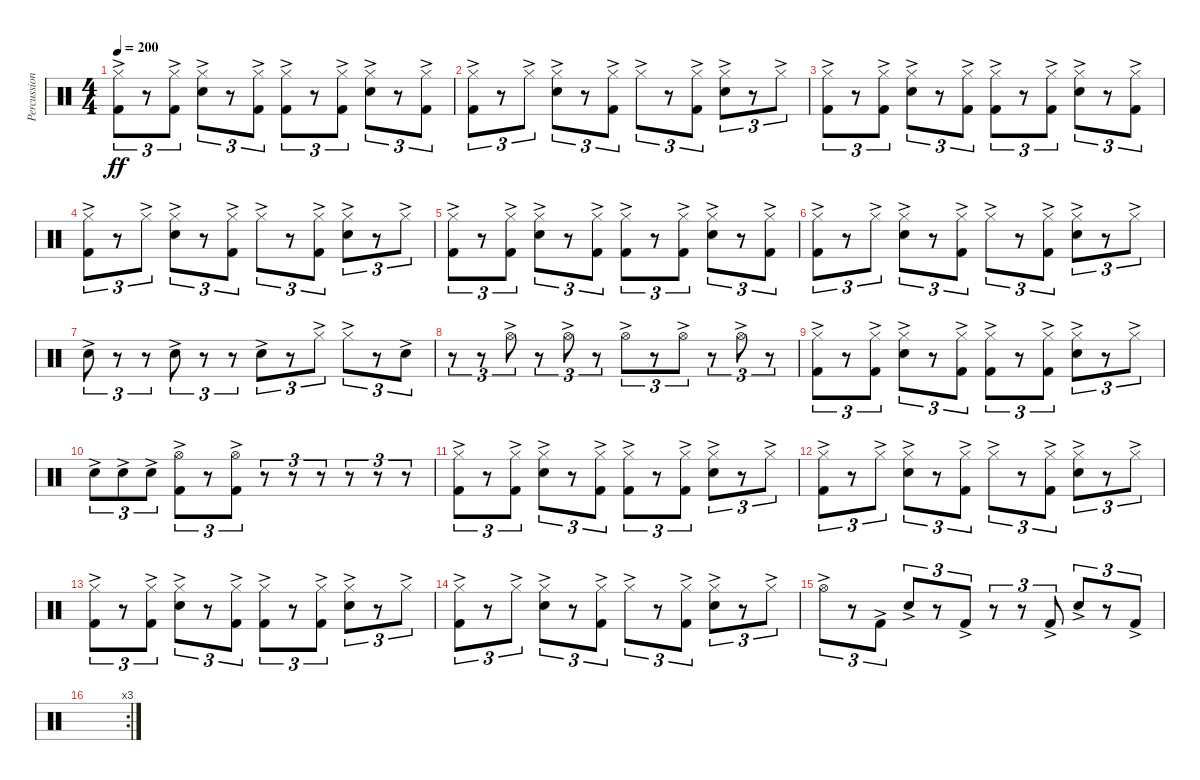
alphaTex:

\track ("Percussion" "Percussion") {instrument percussion}
\staff {score}
\articulation defaults
\ts (4 4)
\tempo 200
\clef neutral
\ks c
("Hi-Hat (closed)"{ac} "Kick (hit) 2"{ac}).8{tu (3 2) dy ff} r.8{tu (3 2)} ("Hi-Hat (closed)"{ac} "Kick (hit) 2"{ac}).8{tu (3 2)} ("Hi-Hat (closed)"{ac} "Snare (hit) 2"{ac}).8{tu (3 2)} r.8{tu (3 2)} ("Hi-Hat (closed)"{ac} "Kick (hit) 2"{ac}).8{tu (3 2)} ("Hi-Hat (closed)"{ac} "Kick (hit) 2"{ac}).8{tu (3 2)} r.8{tu (3 2)} ("Hi-Hat (closed)"{ac} "Kick (hit) 2"{ac}).8{tu (3 2)} ("Hi-Hat (closed)"{ac} "Snare (hit) 2"{ac}).8{tu (3 2)} r.8{tu (3 2)} ("Hi-Hat (closed)"{ac} "Kick (hit) 2"{ac}).8{tu (3 2)} |
("Hi-Hat (closed)"{ac} "Kick (hit) 2"{ac}).8{tu (3 2)} r.8{tu (3 2)} "Hi-Hat (closed)"{ac}.8{tu (3 2)} ("Hi-Hat (closed)"{ac} "Snare (hit) 2"{ac}).8{tu (3 2)} r.8{tu (3 2)} ("Hi-Hat (closed)"{ac} "Kick (hit) 2"{ac}).8{tu (3 2)} "Hi-Hat (closed)"{ac}.8{tu (3 2)} r.8{tu (3 2)} ("Hi-Hat (closed)"{ac} "Kick (hit) 2"{ac}).8{tu (3 2)} ("Hi-Hat (closed)"{ac} "Snare (hit) 2"{ac}).8{tu (3 2)} r.8{tu (3 2)} "Hi-Hat (closed)"{ac}.8{tu (3 2)} |
("Hi-Hat (closed)"{ac} "Kick (hit) 2"{ac}).8{tu (3 2)} r.8{tu (3 2)} ("Hi-Hat (closed)"{ac} "Kick (hit) 2"{ac}).8{tu (3 2)} ("Hi-Hat (closed)"{ac} "Snare (hit) 2"{ac}).8{tu (3 2)} r.8{tu (3 2)} ("Hi-Hat (closed)"{ac} "Kick (hit) 2"{ac}).8{tu (3 2)} ("Hi-Hat (closed)"{ac} "Kick (hit) 2"{ac}).8{tu (3 2)} r.8{tu (3 2)} ("Hi-Hat (closed)"{ac} "Kick (hit) 2"{ac}).8{tu (3 2)} ("Hi-Hat (closed)"{ac} "Snare (hit) 2"{ac}).8{tu (3 2)} r.8{tu (3 2)} ("Hi-Hat (closed)"{ac} "Kick (hit) 2"{ac}).8{tu (3 2)} |
("Hi-Hat (closed)"{ac} "Kick (hit) 2"{ac}).8{tu (3 2)} r.8{tu (3 2)} "Hi-Hat (closed)"{ac}.8{tu (3 2)} ("Hi-Hat (closed)"{ac} "Snare (hit) 2"{ac}).8{tu (3 2)} r.8{tu (3 2)} ("Hi-Hat (closed)"{ac} "Kick (hit) 2"{ac}).8{tu (3 2)} "Hi-Hat (closed)"{ac}.8{tu (3 2)} r.8{tu (3 2)} ("Hi-Hat (closed)"{ac} "Kick (hit) 2"{ac}).8{tu (3 2)} ("Hi-Hat (closed)"{ac} "Snare (hit) 2"{ac}).8{tu (3 2)} r.8{tu (3 2)} "Hi-Hat (closed)"{ac}.8{tu (3 2)} |
("Hi-Hat (closed)"{ac} "Kick (hit) 2"{ac}).8{tu (3 2)} r.8{tu (3 2)} ("Hi-Hat (closed)"{ac} "Kick (hit) 2"{ac}).8{tu (3 2)} ("Hi-Hat (closed)"{ac} "Snare (hit) 2"{ac}).8{tu (3 2)} r.8{tu (3 2)} ("Hi-Hat (closed)"{ac} "Kick (hit) 2"{ac}).8{tu (3 2)} ("Hi-Hat (closed)"{ac} "Kick (hit) 2"{ac}).8{tu (3 2)} r.8{tu (3 2)} ("Hi-Hat (closed)"{ac} "Kick (hit) 2"{ac}).8{tu (3 2)} ("Hi-Hat (closed)"{ac} "Snare (hit) 2"{ac}).8{tu (3 2)} r.8{tu (3 2)} ("Hi-Hat (closed)"{ac} "Kick (hit) 2"{ac}).8{tu (3 2)} |
("Hi-Hat (closed)"{ac} "Kick (hit) 2"{ac}).8{tu (3 2)} r.8{tu (3 2)} "Hi-Hat (closed)"{ac}.8{tu (3 2)} ("Hi-Hat (closed)"{ac} "Snare (hit) 2"{ac}).8{tu (3 2)} r.8{tu (3 2)} ("Hi-Hat (closed)"{ac} "Kick (hit) 2"{ac}).8{tu (3 2)} "Hi-Hat (closed)"{ac}.8{tu (3 2)} r.8{tu (3 2)} ("Hi-Hat (closed)"{ac} "Kick (hit) 2"{ac}).8{tu (3 2)} ("Hi-Hat (closed)"{ac} "Snare (hit) 2"{ac}).8{tu (3 2)} r.8{tu (3 2)} "Hi-Hat (closed)"{ac}.8{tu (3 2)} |
"Snare (hit) 2"{ac}.8{tu (3 2)} r.8{tu (3 2)} r.8{tu (3 2)} "Snare (hit) 2"{ac}.8{tu (3 2)} r.8{tu (3 2)} r.8{tu (3 2)} "Snare (hit) 2"{ac}.8{tu (3 2)} r.8{tu (3 2)} "Hi-Hat (closed)"{ac}.8{tu (3 2)} "Hi-Hat (closed)"{ac}.8{tu (3 2)} r.8{tu (3 2)} "Snare (hit) 2"{ac}.8{tu (3 2)} |
r.8{tu (3 2)} r.8{tu (3 2)} "Hi-Hat (open)"{ac}.8{tu (3 2)} r.8{tu (3 2)} "Hi-Hat (open)"{ac}.8{tu (3 2)} r.8{tu (3 2)} "Hi-Hat (open)"{ac}.8{tu (3 2)} r.8{tu (3 2)} "Hi-Hat (open)"{ac}.8{tu (3 2)} r.8{tu (3 2)} "Hi-Hat (open)"{ac}.8{tu (3 2)} r.8{tu (3 2)} |
("Hi-Hat (closed)"{ac} "Kick (hit) 2"{ac}).8{tu (3 2)} r.8{tu (3 2)} ("Hi-Hat (closed)"{ac} "Kick (hit) 2"{ac}).8{tu (3 2)} ("Hi-Hat (closed)"{ac} "Snare (hit) 2"{ac}).8{tu (3 2)} r.8{tu (3 2)} ("Hi-Hat (closed)"{ac} "Kick (hit) 2"{ac}).8{tu (3 2)} ("Hi-Hat (closed)"{ac} "Kick (hit) 2"{ac}).8{tu (3 2)} r.8{tu (3 2)} ("Hi-Hat (closed)"{ac} "Kick (hit) 2"{ac}).8{tu (3 2)} ("Hi-Hat (closed)"{ac} "Snare (hit) 2"{ac}).8{tu (3 2)} r.8{tu (3 2)} "Hi-Hat (closed)"{ac}.8{tu (3 2)} |
"Snare (hit) 2"{ac}.8{tu (3 2)} "Snare (hit) 2"{ac}.8{tu (3 2)} "Snare (hit) 2"{ac}.8{tu (3 2)} ("Hi-Hat (open)"{ac} "Kick (hit) 2"{ac}).8{tu (3 2)} r.8{tu (3 2)} ("Hi-Hat (open)"{ac} "Kick (hit) 2"{ac}).8{tu (3 2)} r.8{tu (3 2)} r.8{tu (3 2)} r.8{tu (3 2)} r.8{tu (3 2)} r.8{tu (3 2)} r.8{tu (3 2)} |
("Hi-Hat (closed)"{ac} "Kick (hit) 2"{ac}).8{tu (3 2)} r.8{tu (3 2)} ("Hi-Hat (closed)"{ac} "Kick (hit) 2"{ac}).8{tu (3 2)} ("Hi-Hat (closed)"{ac} "Snare (hit) 2"{ac}).8{tu (3 2)} r.8{tu (3 2)} ("Hi-Hat (closed)"{ac} "Kick (hit) 2"{ac}).8{tu (3 2)} ("Hi-Hat (closed)"{ac} "Kick (hit) 2"{ac}).8{tu (3 2)} r.8{tu (3 2)} ("Hi-Hat (closed)"{ac} "Kick (hit) 2"{ac}).8{tu (3 2)} ("Hi-Hat (closed)"{ac} "Snare (hit) 2"{ac}).8{tu (3 2)} r.8{tu (3 2)} "Hi-Hat (closed)"{ac}.8{tu (3 2)} |
("Hi-Hat (closed)"{ac} "Kick (hit) 2"{ac}).8{tu (3 2)} r.8{tu (3 2)} "Hi-Hat (closed)"{ac}.8{tu (3 2)} ("Hi-Hat (closed)"{ac} "Snare (hit) 2"{ac}).8{tu (3 2)} r.8{tu (3 2)} ("Hi-Hat (closed)"{ac} "Kick (hit) 2"{ac}).8{tu (3 2)} "Hi-Hat (closed)"{ac}.8{tu (3 2)} r.8{tu (3 2)} ("Hi-Hat (closed)"{ac} "Kick (hit) 2"{ac}).8{tu (3 2)} ("Hi-Hat (closed)"{ac} "Snare (hit) 2"{ac}).8{tu (3 2)} r.8{tu (3 2)} "Hi-Hat (closed)"{ac}.8{tu (3 2)} |
("Hi-Hat (closed)"{ac} "Kick (hit) 2"{ac}).8{tu (3 2)} r.8{tu (3 2)} ("Hi-Hat (closed)"{ac} "Kick (hit) 2"{ac}).8{tu (3 2)} ("Hi-Hat (closed)"{ac} "Snare (hit) 2"{ac}).8{tu (3 2)} r.8{tu (3 2)} ("Hi-Hat (closed)"{ac} "Kick (hit) 2"{ac}).8{tu (3 2)} ("Hi-Hat (closed)"{ac} "Kick (hit) 2"{ac}).8{tu (3 2)} r.8{tu (3 2)} ("Hi-Hat (closed)"{ac} "Kick (hit) 2"{ac}).8{tu (3 2)} ("Hi-Hat (closed)"{ac} "Snare (hit) 2"{ac}).8{tu (3 2)} r.8{tu (3 2)} "Hi-Hat (closed)"{ac}.8{tu (3 2)} |
("Hi-Hat (closed)"{ac} "Kick (hit) 2"{ac}).8{tu (3 2)} r.8{tu (3 2)} "Hi-Hat (closed)"{ac}.8{tu (3 2)} ("Hi-Hat (closed)"{ac} "Snare (hit) 2"{ac}).8{tu (3 2)} r.8{tu (3 2)} ("Hi-Hat (closed)"{ac} "Kick (hit) 2"{ac}).8{tu (3 2)} "Hi-Hat (closed)"{ac}.8{tu (3 2)} r.8{tu (3 2)} ("Hi-Hat (closed)"{ac} "Kick (hit) 2"{ac}).8{tu (3 2)} ("Hi-Hat (closed)"{ac} "Snare (hit) 2"{ac}).8{tu (3 2)} r.8{tu (3 2)} "Hi-Hat (closed)"{ac}.8{tu (3 2)} |
"Hi-Hat (open)"{ac}.8{tu (3 2)} r.8{tu (3 2)} "Kick (hit) 2"{ac}.8{tu (3 2)} "Snare (hit) 2"{ac}.8{tu (3 2)} r.8{tu (3 2)} "Kick (hit) 2"{ac}.8{tu (3 2)} r.8{tu (3 2)} r.8{tu (3 2)} "Kick (hit) 2"{ac}.8{tu (3 2)} "Snare (hit) 2"{ac}.8{tu (3 2)} r.8{tu (3 2)} "Kick (hit) 2"{ac}.8{tu (3 2)} |
\rc 3
